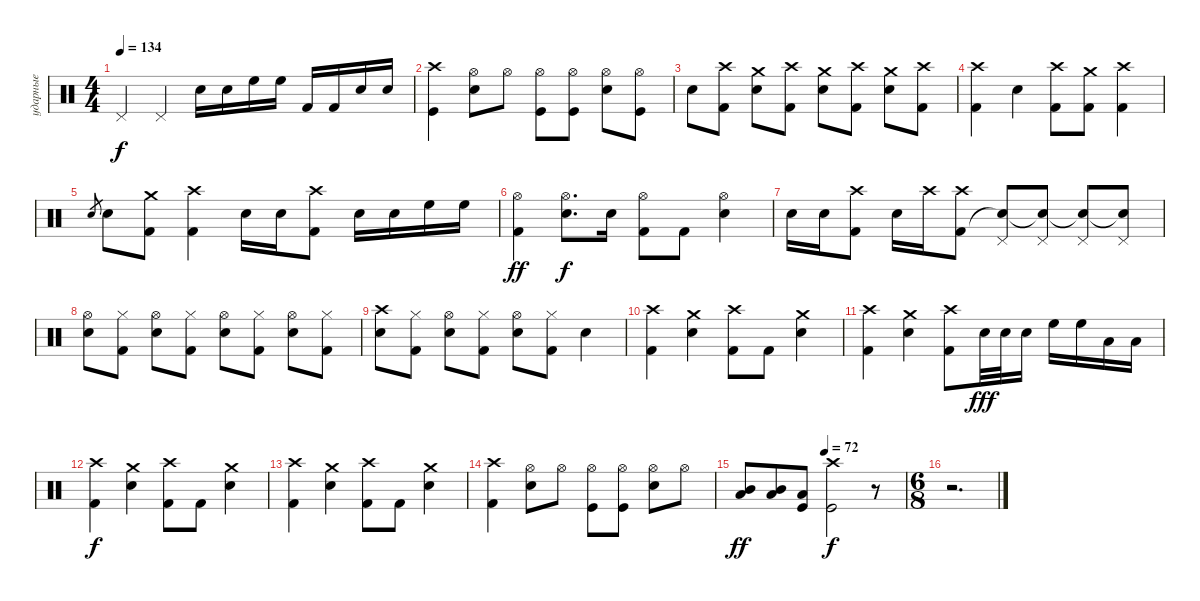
\track ("ударные" "ударные") {instrument percussion}
\staff {score}
\articulation defaults
\ts (4 4)
\tempo 134
\clef neutral
\ks aminor "Pedal Hi-Hat (hit)".4{dy f} "Pedal Hi-Hat (hit)".4 "Electric Snare (hit)".16 "Electric Snare (hit)".16 "High Floor Tom (hit)".16 "High Floor Tom (hit)".16 "Kick (hit) 2".16 "Kick (hit) 2".16 "Electric Snare (hit)".16 "Electric Snare (hit)".16
|
("Kick (hit)" "Crash high (hit)").4 ("Snare (hit) 2" "Hi-Hat (open)").8 "Hi-Hat (open)".8 ("Kick (hit)" "Hi-Hat (open)").8 ("Kick (hit)" "Hi-Hat (open)").8 ("Snare (hit) 2" "Hi-Hat (open)").8 ("Hi-Hat (open)" "Kick (hit)").8 |
"Electric Snare (hit)".8 ("Crash high (hit)" "Kick (hit) 2").8 ("Crash medium (hit)" "Electric Snare (hit)").8 ("Crash high (hit)" "Kick (hit) 2").8 ("Crash medium (hit)" "Electric Snare (hit)").8 ("Crash high (hit)" "Kick (hit) 2").8 ("Crash medium (hit)" "Electric Snare (hit)").8 ("Crash high (hit)" "Kick (hit) 2").8 |
("Crash high (hit)" "Kick (hit) 2").4 "Electric Snare (hit)".4 ("Crash high (hit)" "Kick (hit) 2").8 ("Crash medium (hit)" "Kick (hit) 2").8 ("Crash high (hit)" "Kick (hit) 2").4 |
"Electric Snare (hit)".8{gr} "Electric Snare (hit)".8 ("Crash medium (hit)" "Kick (hit) 2").8 ("Crash high (hit)" "Kick (hit) 2").4 "Electric Snare (hit)".16 "Electric Snare (hit)".16 ("Crash high (hit)" "Kick (hit) 2").8 "Electric Snare (hit)".16 "Electric Snare (hit)".16 "High Floor Tom (hit)".16 "High Floor Tom (hit)".16 |
("Hi-Hat (open)" "Kick (hit) 2").4{dy ff} ("Hi-Hat (open)" "Electric Snare (hit)").8{d dy f} "Snare (hit) 2".16 ("Hi-Hat (open)" "Kick (hit) 2").8 "Kick (hit) 2".8 ("Hi-Hat (open)" "Electric Snare (hit)").4 |
"Electric Snare (hit)".16 "Electric Snare (hit)".16 ("Crash high (hit)" "Kick (hit) 2").8 "Electric Snare (hit)".16 "Crash high (hit)".16 ("Crash high (hit)" "Kick (hit) 2").8 ("Pedal Hi-Hat (hit)" "Snare (hit)"{t}).8 ("Pedal Hi-Hat (hit)" "Snare (hit)"{t}).8 ("Pedal Hi-Hat (hit)" "Snare (hit)"{t}).8 ("Pedal Hi-Hat (hit)" "Snare (hit)"{t}).8 |
("Hi-Hat (open)" "Electric Snare (hit)").8 ("Hi-Hat (closed)" "Kick (hit) 2").8 ("Hi-Hat (open)" "Electric Snare (hit)").8 ("Hi-Hat (closed)" "Kick (hit) 2").8 ("Hi-Hat (open)" "Electric Snare (hit)").8 ("Hi-Hat (closed)" "Kick (hit) 2").8 ("Hi-Hat (open)" "Electric Snare (hit)").8 ("Hi-Hat (closed)" "Kick (hit) 2").8 |
("Crash high (hit)" "Electric Snare (hit)").8 ("Hi-Hat (closed)" "Kick (hit) 2").8 ("Hi-Hat (open)" "Electric Snare (hit)").8 ("Hi-Hat (closed)" "Kick (hit) 2").8 ("Hi-Hat (open)" "Electric Snare (hit)").8 ("Hi-Hat (closed)" "Kick (hit) 2").8 "Electric Snare (hit)".4 |
("Crash high (hit)" "Kick (hit) 2").4 ("Crash medium (hit)" "Electric Snare (hit)").4 ("Crash high (hit)" "Kick (hit) 2").8 "Kick (hit) 2".8 ("Crash medium (hit)" "Electric Snare (hit)").4 |
("Crash high (hit)" "Kick (hit) 2").4 ("Crash medium (hit)" "Electric Snare (hit)").4 ("Crash high (hit)" "Kick (hit) 2").8 "Electric Snare (hit)".32{dy fff} "Electric Snare (hit)".32 "Electric Snare (hit)".16 "High Floor Tom (hit)".16 "High Floor Tom (hit)".16 "Low Tom (hit)".16 "Low Tom (hit)".16 |
("Crash high (hit)" "Kick (hit) 2").4{dy f} ("Crash medium (hit)" "Electric Snare (hit)").4 ("Crash high (hit)" "Kick (hit) 2").8 "Kick (hit) 2".8 ("Crash medium (hit)" "Electric Snare (hit)").4 |
("Crash high (hit)" "Kick (hit) 2").4 ("Crash medium (hit)" "Electric Snare (hit)").4 ("Crash high (hit)" "Kick (hit) 2").8 "Kick (hit) 2".8 ("Crash medium (hit)" "Electric Snare (hit)").4 |
("Crash high (hit)" "Kick (hit) 2").4 ("Snare (hit) 2" "Hi-Hat (open)").8 "Hi-Hat (open)".8 ("Kick (hit)" "Hi-Hat (open)").8 ("Kick (hit)" "Hi-Hat (open)").8 ("Snare (hit) 2" "Hi-Hat (open)").8 "Hi-Hat (open)".8 |
\tempo (72 0.5)
("Mid Tom (hit)" "Low Tom (hit)").8{dy ff} ("Mid Tom (hit)" "Low Tom (hit)").8{beam merge} ("Low Tom (hit)" "Kick (hit)").8 ("Kick (hit)" "Crash high (hit)").2{dy f} r.8 |
\ts (6 8)
r.2{d}
